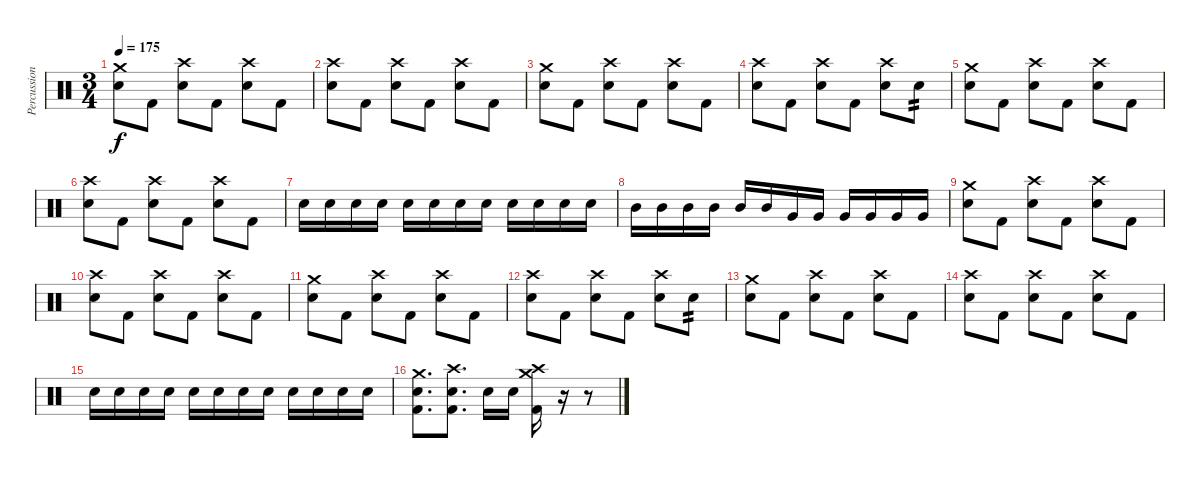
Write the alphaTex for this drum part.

\track ("Percussion" "Percussion") {instrument percussion}
\staff {score}
\articulation defaults
\ts (3 4)
\tempo 175
\clef neutral
\ks c
("Crash medium (hit)" "Electric Snare (hit)").8{dy f} "Kick (hit) 2".8 ("Crash high (hit)" "Electric Snare (hit)").8 "Kick (hit) 2".8 ("Crash high (hit)" "Electric Snare (hit)").8 "Kick (hit) 2".8 |
("Crash high (hit)" "Electric Snare (hit)").8 "Kick (hit) 2".8 ("Crash high (hit)" "Electric Snare (hit)").8 "Kick (hit) 2".8 ("Crash high (hit)" "Electric Snare (hit)").8 "Kick (hit) 2".8 |
("Crash medium (hit)" "Electric Snare (hit)").8 "Kick (hit) 2".8 ("Crash high (hit)" "Electric Snare (hit)").8 "Kick (hit) 2".8 ("Crash high (hit)" "Electric Snare (hit)").8 "Kick (hit) 2".8 |
("Crash high (hit)" "Electric Snare (hit)").8 "Kick (hit) 2".8 ("Crash high (hit)" "Electric Snare (hit)").8 "Kick (hit) 2".8 ("Crash high (hit)" "Electric Snare (hit)").8 "Electric Snare (hit)".8{tp 2} |
("Crash medium (hit)" "Electric Snare (hit)").8 "Kick (hit) 2".8 ("Crash high (hit)" "Electric Snare (hit)").8 "Kick (hit) 2".8 ("Crash high (hit)" "Electric Snare (hit)").8 "Kick (hit) 2".8 |
("Crash high (hit)" "Electric Snare (hit)").8 "Kick (hit) 2".8 ("Crash high (hit)" "Electric Snare (hit)").8 "Kick (hit) 2".8 ("Crash high (hit)" "Electric Snare (hit)").8 "Kick (hit) 2".8 |
"Electric Snare (hit)".16 "Electric Snare (hit)".16 "Electric Snare (hit)".16 "Electric Snare (hit)".16 "Electric Snare (hit)".16 "Electric Snare (hit)".16 "Electric Snare (hit)".16 "Electric Snare (hit)".16 "Electric Snare (hit)".16 "Electric Snare (hit)".16 "Electric Snare (hit)".16 "Electric Snare (hit)".16 |
"Mid Tom (hit)".16 "Mid Tom (hit)".16 "Mid Tom (hit)".16 "Mid Tom (hit)".16 "Mid Tom (hit)".16 "Mid Tom (hit)".16 "Very Low Tom (hit)".16 "Very Low Tom (hit)".16 "Very Low Tom (hit)".16 "Very Low Tom (hit)".16 "Very Low Tom (hit)".16 "Very Low Tom (hit)".16 |
("Crash medium (hit)" "Electric Snare (hit)").8 "Kick (hit) 2".8 ("Crash high (hit)" "Electric Snare (hit)").8 "Kick (hit) 2".8 ("Crash high (hit)" "Electric Snare (hit)").8 "Kick (hit) 2".8 |
("Crash high (hit)" "Electric Snare (hit)").8 "Kick (hit) 2".8 ("Crash high (hit)" "Electric Snare (hit)").8 "Kick (hit) 2".8 ("Crash high (hit)" "Electric Snare (hit)").8 "Kick (hit) 2".8 |
("Crash medium (hit)" "Electric Snare (hit)").8 "Kick (hit) 2".8 ("Crash high (hit)" "Electric Snare (hit)").8 "Kick (hit) 2".8 ("Crash high (hit)" "Electric Snare (hit)").8 "Kick (hit) 2".8 |
("Crash high (hit)" "Electric Snare (hit)").8 "Kick (hit) 2".8 ("Crash high (hit)" "Electric Snare (hit)").8 "Kick (hit) 2".8 ("Crash high (hit)" "Electric Snare (hit)").8 "Electric Snare (hit)".8{tp 2} |
("Crash medium (hit)" "Electric Snare (hit)").8 "Kick (hit) 2".8 ("Crash high (hit)" "Electric Snare (hit)").8 "Kick (hit) 2".8 ("Crash high (hit)" "Electric Snare (hit)").8 "Kick (hit) 2".8 |
("Crash high (hit)" "Electric Snare (hit)").8 "Kick (hit) 2".8 ("Crash high (hit)" "Electric Snare (hit)").8 "Kick (hit) 2".8 ("Crash high (hit)" "Electric Snare (hit)").8 "Kick (hit) 2".8 |
"Electric Snare (hit)".16 "Electric Snare (hit)".16 "Electric Snare (hit)".16 "Electric Snare (hit)".16 "Electric Snare (hit)".16 "Electric Snare (hit)".16 "Electric Snare (hit)".16 "Electric Snare (hit)".16 "Electric Snare (hit)".16 "Electric Snare (hit)".16 "Electric Snare (hit)".16 "Electric Snare (hit)".16 |
("Crash medium (hit)" "Electric Snare (hit)" "Kick (hit) 2").8{d} ("Crash high (hit)" "Electric Snare (hit)" "Kick (hit) 2").8{d} "Electric Snare (hit)".16 "Electric Snare (hit)".16 ("Crash medium (hit)" "Crash high (hit)" "Kick (hit) 2").16 r.16 r.8
